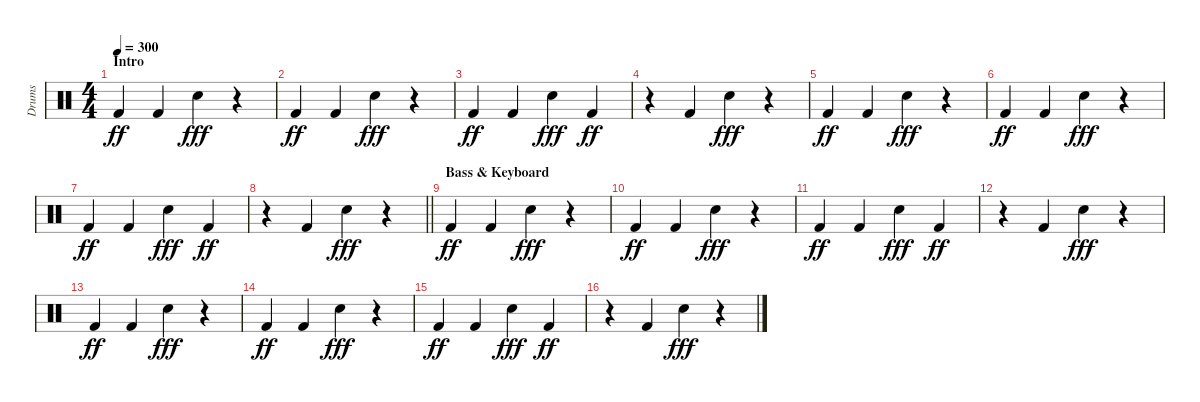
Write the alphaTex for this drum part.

\track ("Drums" "Drums") {instrument percussion}
\staff {score}
\articulation defaults
\ts (4 4)
\section ("" "Intro")
\tempo 300
\clef neutral
\ks c "Kick (hit) 2".4{dy ff} "Kick (hit) 2".4 "Electric Snare (hit)".4{dy fff}
r.4 |
"Kick (hit) 2".4{dy ff} "Kick (hit) 2".4 "Electric Snare (hit)".4{dy fff} r.4 |
"Kick (hit) 2".4{dy ff} "Kick (hit) 2".4 "Electric Snare (hit)".4{dy fff} "Kick (hit) 2".4{dy ff} |
r.4 "Kick (hit) 2".4 "Electric Snare (hit)".4{dy fff} r.4 |
"Kick (hit) 2".4{dy ff} "Kick (hit) 2".4 "Electric Snare (hit)".4{dy fff} r.4 |
"Kick (hit) 2".4{dy ff} "Kick (hit) 2".4 "Electric Snare (hit)".4{dy fff} r.4 |
"Kick (hit) 2".4{dy ff} "Kick (hit) 2".4 "Electric Snare (hit)".4{dy fff} "Kick (hit) 2".4{dy ff} |
\barLineRight lightlight
r.4 "Kick (hit) 2".4 "Electric Snare (hit)".4{dy fff} r.4 |
\section ("" "Bass & Keyboard")
"Kick (hit) 2".4{dy ff} "Kick (hit) 2".4 "Electric Snare (hit)".4{dy fff} r.4 |
"Kick (hit) 2".4{dy ff} "Kick (hit) 2".4 "Electric Snare (hit)".4{dy fff} r.4 |
"Kick (hit) 2".4{dy ff} "Kick (hit) 2".4 "Electric Snare (hit)".4{dy fff} "Kick (hit) 2".4{dy ff} |
r.4 "Kick (hit) 2".4 "Electric Snare (hit)".4{dy fff} r.4 |
"Kick (hit) 2".4{dy ff} "Kick (hit) 2".4 "Electric Snare (hit)".4{dy fff} r.4 |
"Kick (hit) 2".4{dy ff} "Kick (hit) 2".4 "Electric Snare (hit)".4{dy fff} r.4 |
"Kick (hit) 2".4{dy ff} "Kick (hit) 2".4 "Electric Snare (hit)".4{dy fff} "Kick (hit) 2".4{dy ff} |
r.4 "Kick (hit) 2".4 "Electric Snare (hit)".4{dy fff} r.4
